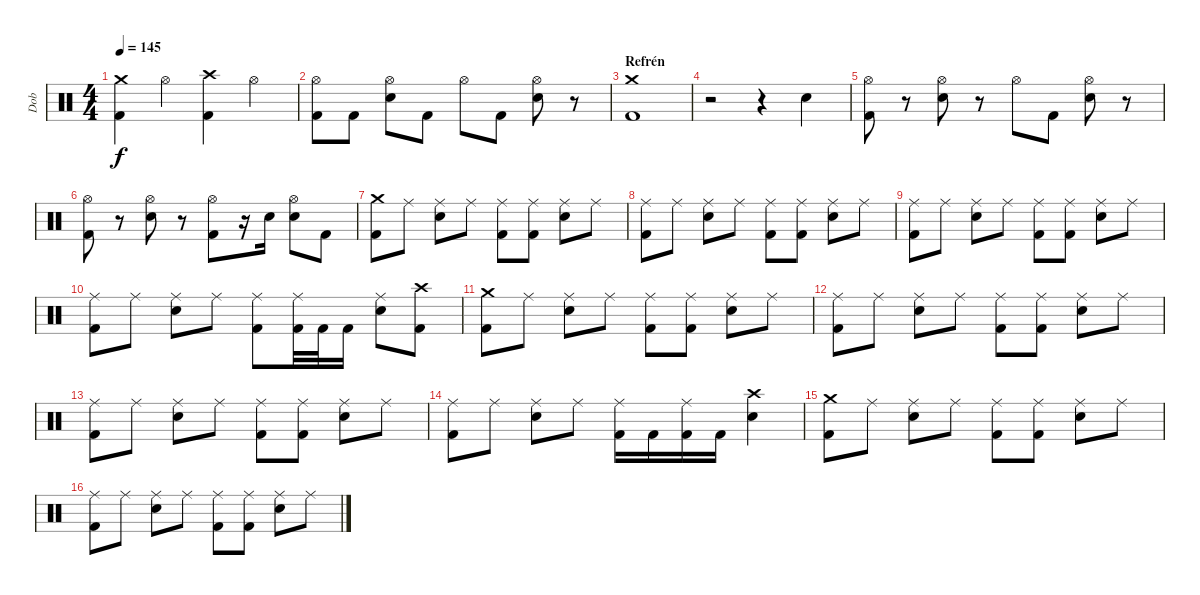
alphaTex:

\track ("Dob" "Dob") {instrument percussion}
\staff {score}
\articulation defaults
\ts (4 4)
\tempo 145
\clef neutral
\ks c
("Crash medium (hit)" "Kick (hit) 2").4{dy f} "Hi-Hat (open)".4 ("Crash high (hit)" "Kick (hit) 2").4 "Hi-Hat (open)".4 |
("Hi-Hat (open)" "Kick (hit) 2").8 "Kick (hit) 2".8 ("Hi-Hat (open)" "Electric Snare (hit)").8 "Kick (hit) 2".8 "Hi-Hat (open)".8 "Kick (hit) 2".8 ("Hi-Hat (open)" "Electric Snare (hit)").8 r.8 |
\section ("" "Refrén")
("Crash medium (hit)" "Kick (hit) 2").1 |
r.2 r.4 "Electric Snare (hit)".4 |
("Hi-Hat (open)" "Kick (hit) 2").8 r.8 ("Hi-Hat (open)" "Electric Snare (hit)").8 r.8 "Hi-Hat (open)".8 "Kick (hit) 2".8 ("Hi-Hat (open)" "Electric Snare (hit)").8 r.8 |
("Hi-Hat (open)" "Kick (hit) 2").8 r.8 ("Hi-Hat (open)" "Electric Snare (hit)").8 r.8 ("Hi-Hat (open)" "Kick (hit) 2").8 r.16 "Electric Snare (hit)".16 ("Hi-Hat (open)" "Electric Snare (hit)").8 "Kick (hit) 2".8 |
("Crash medium (hit)" "Kick (hit) 2").8 "Ride (middle)".8 ("Ride (middle)" "Electric Snare (hit)").8 "Ride (middle)".8 ("Ride (middle)" "Kick (hit) 2").8 ("Ride (middle)" "Kick (hit) 2").8 ("Ride (middle)" "Electric Snare (hit)").8 "Ride (middle)".8 |
("Ride (middle)" "Kick (hit) 2").8 "Ride (middle)".8 ("Ride (middle)" "Electric Snare (hit)").8 "Ride (middle)".8 ("Ride (middle)" "Kick (hit) 2").8 ("Ride (middle)" "Kick (hit) 2").8 ("Ride (middle)" "Electric Snare (hit)").8 "Ride (middle)".8 |
("Ride (middle)" "Kick (hit) 2").8 "Ride (middle)".8 ("Ride (middle)" "Electric Snare (hit)").8 "Ride (middle)".8 ("Ride (middle)" "Kick (hit) 2").8 ("Ride (middle)" "Kick (hit) 2").8 ("Ride (middle)" "Electric Snare (hit)").8 "Ride (middle)".8 |
("Ride (middle)" "Kick (hit) 2").8 "Ride (middle)".8 ("Ride (middle)" "Electric Snare (hit)").8 "Ride (middle)".8 ("Ride (middle)" "Kick (hit) 2").8 ("Ride (middle)" "Kick (hit) 2").32 "Kick (hit) 2".32 "Kick (hit) 2".16 ("Ride (middle)" "Electric Snare (hit)").8 ("Crash high (hit)" "Kick (hit) 2").8 |
("Crash medium (hit)" "Kick (hit) 2").8 "Ride (middle)".8 ("Ride (middle)" "Electric Snare (hit)").8 "Ride (middle)".8 ("Ride (middle)" "Kick (hit) 2").8 ("Ride (middle)" "Kick (hit) 2").8 ("Ride (middle)" "Electric Snare (hit)").8 "Ride (middle)".8 |
("Ride (middle)" "Kick (hit) 2").8 "Ride (middle)".8 ("Ride (middle)" "Electric Snare (hit)").8 "Ride (middle)".8 ("Ride (middle)" "Kick (hit) 2").8 ("Ride (middle)" "Kick (hit) 2").8 ("Ride (middle)" "Electric Snare (hit)").8 "Ride (middle)".8 |
("Ride (middle)" "Kick (hit) 2").8 "Ride (middle)".8 ("Ride (middle)" "Electric Snare (hit)").8 "Ride (middle)".8 ("Ride (middle)" "Kick (hit) 2").8 ("Ride (middle)" "Kick (hit) 2").8 ("Ride (middle)" "Electric Snare (hit)").8 "Ride (middle)".8 |
("Ride (middle)" "Kick (hit) 2").8 "Ride (middle)".8 ("Ride (middle)" "Electric Snare (hit)").8 "Ride (middle)".8 ("Ride (middle)" "Kick (hit) 2").16 "Kick (hit) 2".16 ("Ride (middle)" "Kick (hit) 2").16 "Kick (hit) 2".16 ("Crash high (hit)" "Electric Snare (hit)").4 |
("Crash medium (hit)" "Kick (hit) 2").8 "Ride (middle)".8 ("Ride (middle)" "Electric Snare (hit)").8 "Ride (middle)".8 ("Ride (middle)" "Kick (hit) 2").8 ("Ride (middle)" "Kick (hit) 2").8 ("Ride (middle)" "Electric Snare (hit)").8 "Ride (middle)".8 |
("Ride (middle)" "Kick (hit) 2").8 "Ride (middle)".8 ("Ride (middle)" "Electric Snare (hit)").8 "Ride (middle)".8 ("Ride (middle)" "Kick (hit) 2").8 ("Ride (middle)" "Kick (hit) 2").8 ("Ride (middle)" "Electric Snare (hit)").8 "Ride (middle)".8
